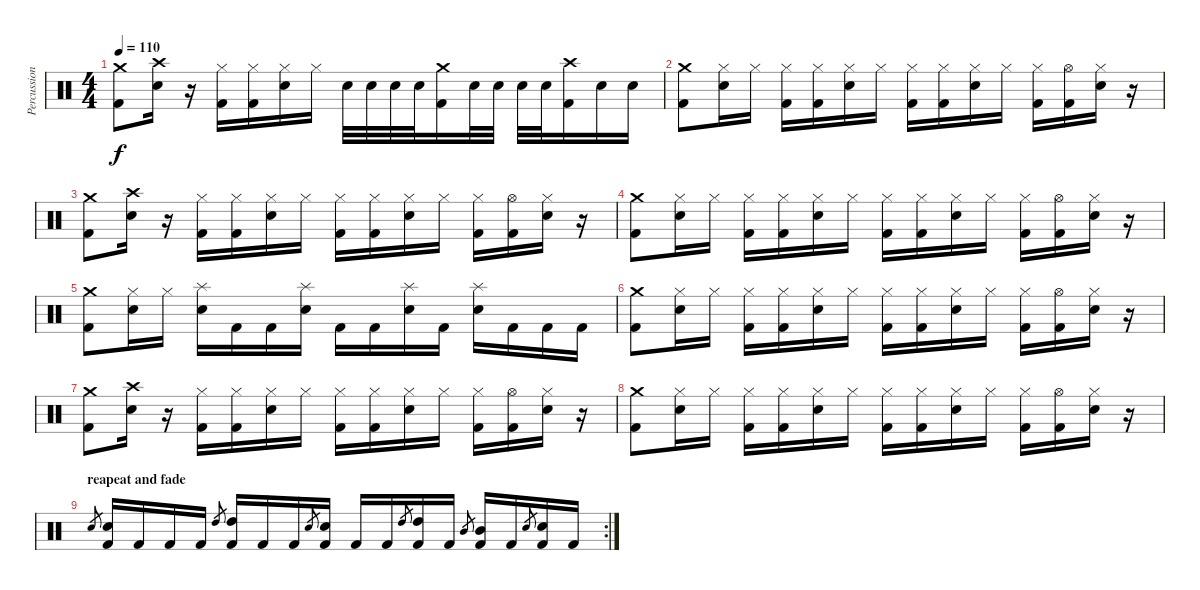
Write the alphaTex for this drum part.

\track ("Percussions" "Percussion") {instrument percussion}
\staff {score}
\articulation defaults
\ts (4 4)
\tempo 110
\clef neutral
\ks c
("Crash medium (hit)" "Kick (hit) 2").8{dy f} ("Crash high (hit)" "Electric Snare (hit)").16 r.16 ("Hi-Hat (closed)" "Kick (hit) 2").16 ("Hi-Hat (closed)" "Kick (hit) 2").16 ("Hi-Hat (closed)" "Electric Snare (hit)").16 "Hi-Hat (closed)".16 "Electric Snare (hit)".32 "Electric Snare (hit)".32 "Electric Snare (hit)".32 "Electric Snare (hit)".32 ("Crash medium (hit)" "Kick (hit) 2").16 "Electric Snare (hit)".32 "Electric Snare (hit)".32 "Electric Snare (hit)".32 "Electric Snare (hit)".32 ("Crash high (hit)" "Kick (hit) 2").16 "Electric Snare (hit)".16 "Electric Snare (hit)".16 |
("Crash medium (hit)" "Kick (hit) 2").8 ("Hi-Hat (closed)" "Electric Snare (hit)").16 "Hi-Hat (closed)".16 ("Hi-Hat (closed)" "Kick (hit) 2").16 ("Hi-Hat (closed)" "Kick (hit) 2").16 ("Hi-Hat (closed)" "Electric Snare (hit)").16 "Hi-Hat (closed)".16 ("Hi-Hat (closed)" "Kick (hit) 2").16 ("Hi-Hat (closed)" "Kick (hit) 2").16 ("Hi-Hat (closed)" "Electric Snare (hit)").16 "Hi-Hat (closed)".16 ("Hi-Hat (closed)" "Kick (hit) 2").16 ("Hi-Hat (open)" "Kick (hit) 2").16 ("Hi-Hat (closed)" "Electric Snare (hit)").16 r.16 |
("Crash medium (hit)" "Kick (hit) 2").8 ("Crash high (hit)" "Electric Snare (hit)").16 r.16 ("Hi-Hat (closed)" "Kick (hit) 2").16 ("Hi-Hat (closed)" "Kick (hit) 2").16 ("Hi-Hat (closed)" "Electric Snare (hit)").16 "Hi-Hat (closed)".16 ("Hi-Hat (closed)" "Kick (hit) 2").16 ("Hi-Hat (closed)" "Kick (hit) 2").16 ("Hi-Hat (closed)" "Electric Snare (hit)").16 "Hi-Hat (closed)".16 ("Hi-Hat (closed)" "Kick (hit) 2").16 ("Hi-Hat (open)" "Kick (hit) 2").16 ("Hi-Hat (closed)" "Electric Snare (hit)").16 r.16 |
("Crash medium (hit)" "Kick (hit) 2").8 ("Hi-Hat (closed)" "Electric Snare (hit)").16 "Hi-Hat (closed)".16 ("Hi-Hat (closed)" "Kick (hit) 2").16 ("Hi-Hat (closed)" "Kick (hit) 2").16 ("Hi-Hat (closed)" "Electric Snare (hit)").16 "Hi-Hat (closed)".16 ("Hi-Hat (closed)" "Kick (hit) 2").16 ("Hi-Hat (closed)" "Kick (hit) 2").16 ("Hi-Hat (closed)" "Electric Snare (hit)").16 "Hi-Hat (closed)".16 ("Hi-Hat (closed)" "Kick (hit) 2").16 ("Hi-Hat (open)" "Kick (hit) 2").16 ("Hi-Hat (closed)" "Electric Snare (hit)").16 r.16 |
("Crash medium (hit)" "Kick (hit) 2").8 ("Hi-Hat (closed)" "Electric Snare (hit)").16 "Hi-Hat (closed)".16 ("Splash (hit)" "Electric Snare (hit)").16 "Kick (hit) 2".16 "Kick (hit) 2".16 ("Splash (hit)" "Electric Snare (hit)").16 "Kick (hit) 2".16 "Kick (hit) 2".16 ("Splash (hit)" "Electric Snare (hit)").16 "Kick (hit) 2".16 ("Splash (hit)" "Electric Snare (hit)").16 "Kick (hit) 2".16 "Kick (hit) 2".16 "Kick (hit) 2".16 |
("Crash medium (hit)" "Kick (hit) 2").8 ("Hi-Hat (closed)" "Electric Snare (hit)").16 "Hi-Hat (closed)".16 ("Hi-Hat (closed)" "Kick (hit) 2").16 ("Hi-Hat (closed)" "Kick (hit) 2").16 ("Hi-Hat (closed)" "Electric Snare (hit)").16 "Hi-Hat (closed)".16 ("Hi-Hat (closed)" "Kick (hit) 2").16 ("Hi-Hat (closed)" "Kick (hit) 2").16 ("Hi-Hat (closed)" "Electric Snare (hit)").16 "Hi-Hat (closed)".16 ("Hi-Hat (closed)" "Kick (hit) 2").16 ("Hi-Hat (open)" "Kick (hit) 2").16 ("Hi-Hat (closed)" "Electric Snare (hit)").16 r.16 |
("Crash medium (hit)" "Kick (hit) 2").8 ("Crash high (hit)" "Electric Snare (hit)").16 r.16 ("Hi-Hat (closed)" "Kick (hit) 2").16 ("Hi-Hat (closed)" "Kick (hit) 2").16 ("Hi-Hat (closed)" "Electric Snare (hit)").16 "Hi-Hat (closed)".16 ("Hi-Hat (closed)" "Kick (hit) 2").16 ("Hi-Hat (closed)" "Kick (hit) 2").16 ("Hi-Hat (closed)" "Electric Snare (hit)").16 "Hi-Hat (closed)".16 ("Hi-Hat (closed)" "Kick (hit) 2").16 ("Hi-Hat (open)" "Kick (hit) 2").16 ("Hi-Hat (closed)" "Electric Snare (hit)").16 r.16 |
("Crash medium (hit)" "Kick (hit) 2").8 ("Hi-Hat (closed)" "Electric Snare (hit)").16 "Hi-Hat (closed)".16 ("Hi-Hat (closed)" "Kick (hit) 2").16 ("Hi-Hat (closed)" "Kick (hit) 2").16 ("Hi-Hat (closed)" "Electric Snare (hit)").16 "Hi-Hat (closed)".16 ("Hi-Hat (closed)" "Kick (hit) 2").16 ("Hi-Hat (closed)" "Kick (hit) 2").16 ("Hi-Hat (closed)" "Electric Snare (hit)").16 "Hi-Hat (closed)".16 ("Hi-Hat (closed)" "Kick (hit) 2").16 ("Hi-Hat (open)" "Kick (hit) 2").16 ("Hi-Hat (closed)" "Electric Snare (hit)").16 r.16 |
\rc 2
\section ("" "reapeat and fade")
"Electric Snare (hit)".8{gr} ("Electric Snare (hit)" "Kick (hit) 2").16 "Kick (hit) 2".16 "Kick (hit) 2".16 "Kick (hit) 2".16 "High Tom (hit)".8{gr} ("High Tom (hit)" "Kick (hit) 2").16 "Kick (hit) 2".16 "Kick (hit) 2".16 "Electric Snare (hit)".8{gr} ("Electric Snare (hit)" "Kick (hit) 2").16 "Kick (hit) 2".16 "Kick (hit) 2".16 "High Tom (hit)".8{gr} ("High Tom (hit)" "Kick (hit) 2").16 "Kick (hit) 2".16 "Mid Tom (hit)".8{gr} ("Mid Tom (hit)" "Kick (hit) 2").16 "Kick (hit) 2".16 "Electric Snare (hit)".8{gr} ("Electric Snare (hit)" "Kick (hit) 2").16 "Kick (hit) 2".16
